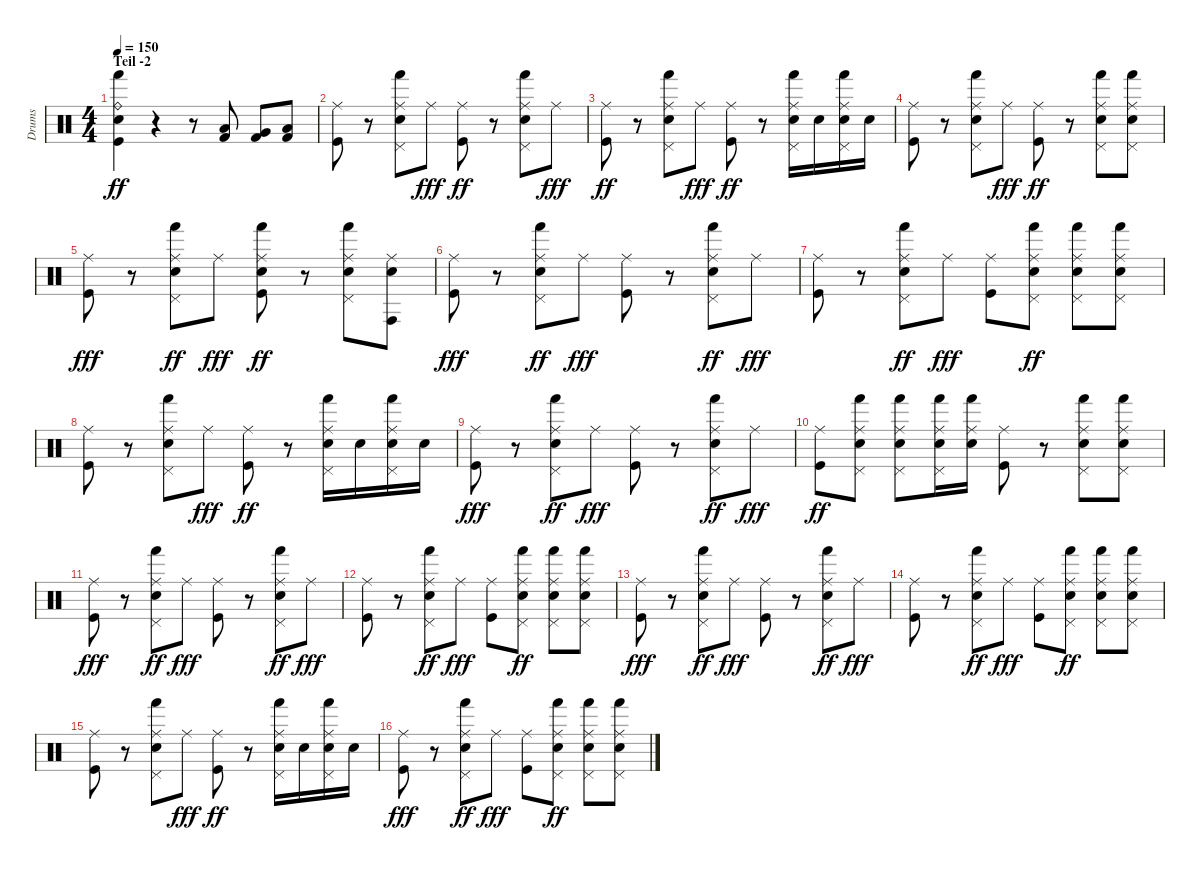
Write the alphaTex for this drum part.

\track ("Drums" "Drums") {instrument percussion}
\staff {score}
\articulation defaults
\ts (4 4)
\section ("" "Teil -2")
\tempo 150
\clef neutral
\ks c
("Ride (bell)" "Hand (hit)" "Electric Snare (hit)" "Kick (hit)").4{dy ff} r.4 r.8 ("Low Floor Tom (hit)" "Kick (hit) 2").8 ("Very Low Tom (hit)" "Kick (hit) 2").8 ("Low Tom (hit)" "Kick (hit) 2").8 |
("Ride (middle)" "Kick (hit)").8 r.8 ("Ride (middle)" "Pedal Hi-Hat (hit)" "Hand (hit)" "Electric Snare (hit)").8 "Ride (middle)".8{dy fff} ("Ride (middle)" "Kick (hit)").8{dy ff} r.8 ("Ride (middle)" "Pedal Hi-Hat (hit)" "Hand (hit)" "Electric Snare (hit)").8 "Ride (middle)".8{dy fff} |
("Ride (middle)" "Kick (hit)").8{dy ff} r.8 ("Ride (middle)" "Pedal Hi-Hat (hit)" "Hand (hit)" "Electric Snare (hit)").8 "Ride (middle)".8{dy fff} ("Ride (middle)" "Kick (hit)").8{dy ff} r.8 ("Ride (middle)" "Pedal Hi-Hat (hit)" "Hand (hit)" "Electric Snare (hit)").16 "Electric Snare (hit)".16 ("Ride (middle)" "Pedal Hi-Hat (hit)" "Hand (hit)" "Electric Snare (hit)").16 "Electric Snare (hit)".16 |
("Ride (middle)" "Kick (hit)").8 r.8 ("Ride (middle)" "Pedal Hi-Hat (hit)" "Hand (hit)" "Electric Snare (hit)").8 "Ride (middle)".8{dy fff} ("Ride (middle)" "Kick (hit)").8{dy ff} r.8 ("Ride (middle)" "Pedal Hi-Hat (hit)" "Hand (hit)" "Electric Snare (hit)").8 ("Ride (middle)" "Pedal Hi-Hat (hit)" "Hand (hit)" "Electric Snare (hit)").8 |
("Ride (middle)" "Kick (hit)").8{dy fff} r.8 ("Ride (middle)" "Pedal Hi-Hat (hit)" "Hand (hit)" "Electric Snare (hit)").8{dy ff} "Ride (middle)".8{dy fff} ("Ride (middle)" "Hand (hit)" "Electric Snare (hit)" "Kick (hit)").8{dy ff} r.8 ("Ride (middle)" "Pedal Hi-Hat (hit)" "Hand (hit)" "Electric Snare (hit)").8 ("Ride (middle)" "Conga high (hit)" "Electric Snare (hit)").8 |
("Ride (middle)" "Kick (hit)").8{dy fff} r.8 ("Ride (middle)" "Pedal Hi-Hat (hit)" "Hand (hit)" "Electric Snare (hit)").8{dy ff} "Ride (middle)".8{dy fff} ("Ride (middle)" "Kick (hit)").8 r.8 ("Ride (middle)" "Pedal Hi-Hat (hit)" "Hand (hit)" "Electric Snare (hit)").8{dy ff} "Ride (middle)".8{dy fff} |
("Ride (middle)" "Kick (hit)").8 r.8 ("Ride (middle)" "Pedal Hi-Hat (hit)" "Hand (hit)" "Electric Snare (hit)").8{dy ff} "Ride (middle)".8{dy fff} ("Ride (middle)" "Kick (hit)").8 ("Ride (middle)" "Pedal Hi-Hat (hit)" "Hand (hit)" "Electric Snare (hit)").8{dy ff} ("Ride (middle)" "Pedal Hi-Hat (hit)" "Hand (hit)" "Electric Snare (hit)").8 ("Ride (middle)" "Pedal Hi-Hat (hit)" "Hand (hit)" "Electric Snare (hit)").8 |
("Ride (middle)" "Kick (hit)").8 r.8 ("Ride (middle)" "Pedal Hi-Hat (hit)" "Hand (hit)" "Electric Snare (hit)").8 "Ride (middle)".8{dy fff} ("Ride (middle)" "Kick (hit)").8{dy ff} r.8 ("Ride (middle)" "Pedal Hi-Hat (hit)" "Hand (hit)" "Electric Snare (hit)").16 "Electric Snare (hit)".16 ("Ride (middle)" "Pedal Hi-Hat (hit)" "Hand (hit)" "Electric Snare (hit)").16 "Electric Snare (hit)".16 |
("Ride (middle)" "Kick (hit)").8{dy fff} r.8 ("Ride (middle)" "Pedal Hi-Hat (hit)" "Hand (hit)" "Electric Snare (hit)").8{dy ff} "Ride (middle)".8{dy fff} ("Ride (middle)" "Kick (hit)").8 r.8 ("Ride (middle)" "Pedal Hi-Hat (hit)" "Hand (hit)" "Electric Snare (hit)").8{dy ff} "Ride (middle)".8{dy fff} |
("Ride (middle)" "Kick (hit)").8{dy ff} ("Ride (middle)" "Pedal Hi-Hat (hit)" "Hand (hit)" "Electric Snare (hit)").8 ("Ride (middle)" "Pedal Hi-Hat (hit)" "Hand (hit)" "Electric Snare (hit)").8 ("Ride (middle)" "Pedal Hi-Hat (hit)" "Hand (hit)" "Electric Snare (hit)").16 ("Ride (middle)" "Hand (hit)" "Electric Snare (hit)").16 ("Ride (middle)" "Kick (hit)").8 r.8 ("Ride (middle)" "Pedal Hi-Hat (hit)" "Hand (hit)" "Electric Snare (hit)").8 ("Ride (middle)" "Pedal Hi-Hat (hit)" "Hand (hit)" "Electric Snare (hit)").8 |
("Ride (middle)" "Kick (hit)").8{dy fff} r.8 ("Ride (middle)" "Pedal Hi-Hat (hit)" "Hand (hit)" "Electric Snare (hit)").8{dy ff} "Ride (middle)".8{dy fff} ("Ride (middle)" "Kick (hit)").8 r.8 ("Ride (middle)" "Pedal Hi-Hat (hit)" "Hand (hit)" "Electric Snare (hit)").8{dy ff} "Ride (middle)".8{dy fff} |
("Ride (middle)" "Kick (hit)").8 r.8 ("Ride (middle)" "Pedal Hi-Hat (hit)" "Hand (hit)" "Electric Snare (hit)").8{dy ff} "Ride (middle)".8{dy fff} ("Ride (middle)" "Kick (hit)").8 ("Ride (middle)" "Pedal Hi-Hat (hit)" "Hand (hit)" "Electric Snare (hit)").8{dy ff} ("Ride (middle)" "Pedal Hi-Hat (hit)" "Hand (hit)" "Electric Snare (hit)").8 ("Ride (middle)" "Pedal Hi-Hat (hit)" "Hand (hit)" "Electric Snare (hit)").8 |
("Ride (middle)" "Kick (hit)").8{dy fff} r.8 ("Ride (middle)" "Pedal Hi-Hat (hit)" "Hand (hit)" "Electric Snare (hit)").8{dy ff} "Ride (middle)".8{dy fff} ("Ride (middle)" "Kick (hit)").8 r.8 ("Ride (middle)" "Pedal Hi-Hat (hit)" "Hand (hit)" "Electric Snare (hit)").8{dy ff} "Ride (middle)".8{dy fff} |
("Ride (middle)" "Kick (hit)").8 r.8 ("Ride (middle)" "Pedal Hi-Hat (hit)" "Hand (hit)" "Electric Snare (hit)").8{dy ff} "Ride (middle)".8{dy fff} ("Ride (middle)" "Kick (hit)").8 ("Ride (middle)" "Pedal Hi-Hat (hit)" "Hand (hit)" "Electric Snare (hit)").8{dy ff} ("Ride (middle)" "Pedal Hi-Hat (hit)" "Hand (hit)" "Electric Snare (hit)").8 ("Ride (middle)" "Pedal Hi-Hat (hit)" "Hand (hit)" "Electric Snare (hit)").8 |
("Ride (middle)" "Kick (hit)").8 r.8 ("Ride (middle)" "Pedal Hi-Hat (hit)" "Hand (hit)" "Electric Snare (hit)").8 "Ride (middle)".8{dy fff} ("Ride (middle)" "Kick (hit)").8{dy ff} r.8 ("Ride (middle)" "Pedal Hi-Hat (hit)" "Hand (hit)" "Electric Snare (hit)").16 "Electric Snare (hit)".16 ("Ride (middle)" "Pedal Hi-Hat (hit)" "Hand (hit)" "Electric Snare (hit)").16 "Electric Snare (hit)".16 |
("Ride (middle)" "Kick (hit)").8{dy fff} r.8 ("Ride (middle)" "Pedal Hi-Hat (hit)" "Hand (hit)" "Electric Snare (hit)").8{dy ff} "Ride (middle)".8{dy fff} ("Ride (middle)" "Kick (hit)").8 ("Ride (middle)" "Pedal Hi-Hat (hit)" "Hand (hit)" "Electric Snare (hit)").8{dy ff} ("Ride (middle)" "Pedal Hi-Hat (hit)" "Hand (hit)" "Electric Snare (hit)").8 ("Ride (middle)" "Pedal Hi-Hat (hit)" "Hand (hit)" "Electric Snare (hit)").8
